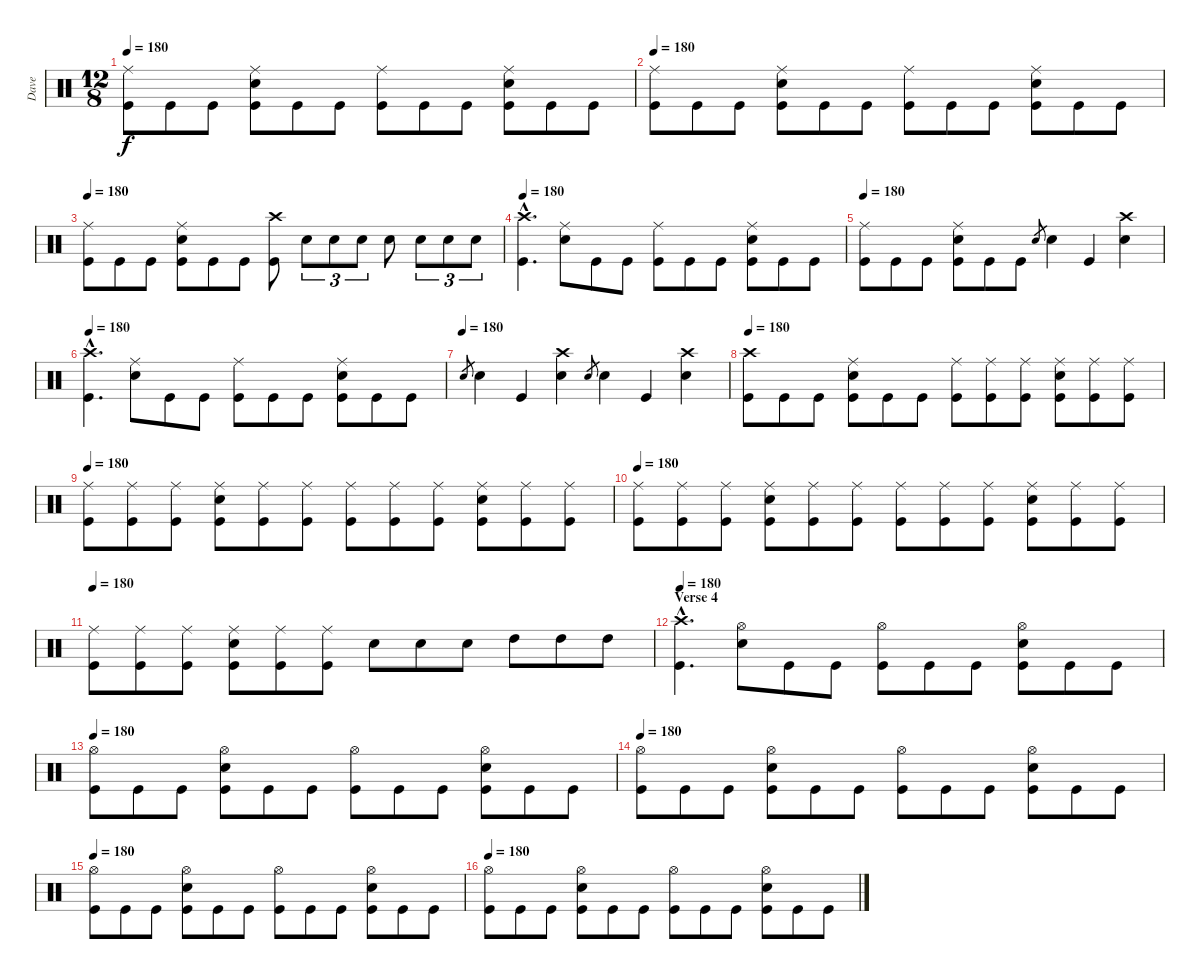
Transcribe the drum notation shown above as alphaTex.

\track ("Dave" "Dave") {instrument percussion}
\staff {score}
\articulation defaults
\ts (12 8)
\tempo 180
\clef neutral
\ks c
("Ride (middle)" "Kick (hit)").8{dy f} "Kick (hit)".8 "Kick (hit)".8 ("Ride (middle)" "Snare (hit) 2" "Kick (hit)").8 "Kick (hit)".8 "Kick (hit)".8 ("Ride (middle)" "Kick (hit)").8 "Kick (hit)".8 "Kick (hit)".8 ("Ride (middle)" "Snare (hit) 2" "Kick (hit)").8 "Kick (hit)".8 "Kick (hit)".8 |
\tempo 180
("Ride (middle)" "Kick (hit)").8 "Kick (hit)".8 "Kick (hit)".8 ("Ride (middle)" "Snare (hit) 2" "Kick (hit)").8 "Kick (hit)".8 "Kick (hit)".8 ("Ride (middle)" "Kick (hit)").8 "Kick (hit)".8 "Kick (hit)".8 ("Ride (middle)" "Snare (hit) 2" "Kick (hit)").8 "Kick (hit)".8 "Kick (hit)".8 |
\tempo 180
("Ride (middle)" "Kick (hit)").8 "Kick (hit)".8 "Kick (hit)".8 ("Ride (middle)" "Snare (hit) 2" "Kick (hit)").8 "Kick (hit)".8 "Kick (hit)".8 ("Crash high (hit)" "Kick (hit)").8 "Snare (hit) 2".8{tu (3 2)} "Snare (hit) 2".8{tu (3 2)} "Snare (hit) 2".8{tu (3 2)} "Snare (hit) 2".8 "Snare (hit) 2".8{tu (3 2)} "Snare (hit) 2".8{tu (3 2)} "Snare (hit) 2".8{tu (3 2)} |
\tempo 180
("Crash high (hit)"{hac} "Kick (hit)"{hac}).4{d} ("Ride (middle)" "Snare (hit) 2").8 "Kick (hit)".8 "Kick (hit)".8 ("Ride (middle)" "Kick (hit)").8 "Kick (hit)".8 "Kick (hit)".8 ("Ride (middle)" "Snare (hit) 2" "Kick (hit)").8 "Kick (hit)".8 "Kick (hit)".8 |
\tempo 180
("Ride (middle)" "Kick (hit)").8 "Kick (hit)".8 "Kick (hit)".8 ("Ride (middle)" "Snare (hit) 2" "Kick (hit)").8 "Kick (hit)".8 "Kick (hit)".8 "Snare (hit) 2".8{gr} "Snare (hit) 2".4 "Kick (hit)".4 ("Crash high (hit)" "Snare (hit) 2").4 |
\tempo 180
("Crash high (hit)"{hac} "Kick (hit)"{hac}).4{d} ("Ride (middle)" "Snare (hit) 2").8 "Kick (hit)".8 "Kick (hit)".8 ("Ride (middle)" "Kick (hit)").8 "Kick (hit)".8 "Kick (hit)".8 ("Ride (middle)" "Snare (hit) 2" "Kick (hit)").8 "Kick (hit)".8 "Kick (hit)".8 |
\tempo (180)
"Snare (hit) 2".8{gr} "Snare (hit) 2".4 "Kick (hit)".4 ("Crash high (hit)" "Snare (hit) 2").4 "Snare (hit) 2".8{gr} "Snare (hit) 2".4 "Kick (hit)".4 ("Crash high (hit)" "Snare (hit) 2").4 |
\tempo 180
("Crash high (hit)" "Kick (hit)").8 "Kick (hit)".8 "Kick (hit)".8 ("Ride (middle)" "Snare (hit) 2" "Kick (hit)").8 "Kick (hit)".8 "Kick (hit)".8 ("Ride (middle)" "Kick (hit)").8 ("Ride (middle)" "Kick (hit)").8 ("Ride (middle)" "Kick (hit)").8 ("Ride (middle)" "Snare (hit) 2" "Kick (hit)").8 ("Ride (middle)" "Kick (hit)").8 ("Ride (middle)" "Kick (hit)").8 |
\tempo 180
("Ride (middle)" "Kick (hit)").8 ("Ride (middle)" "Kick (hit)").8 ("Ride (middle)" "Kick (hit)").8 ("Ride (middle)" "Snare (hit) 2" "Kick (hit)").8 ("Ride (middle)" "Kick (hit)").8 ("Ride (middle)" "Kick (hit)").8 ("Ride (middle)" "Kick (hit)").8 ("Ride (middle)" "Kick (hit)").8 ("Ride (middle)" "Kick (hit)").8 ("Ride (middle)" "Snare (hit) 2" "Kick (hit)").8 ("Ride (middle)" "Kick (hit)").8 ("Ride (middle)" "Kick (hit)").8 |
\tempo 180
("Ride (middle)" "Kick (hit)").8 ("Ride (middle)" "Kick (hit)").8 ("Ride (middle)" "Kick (hit)").8 ("Ride (middle)" "Snare (hit) 2" "Kick (hit)").8 ("Ride (middle)" "Kick (hit)").8 ("Ride (middle)" "Kick (hit)").8 ("Ride (middle)" "Kick (hit)").8 ("Ride (middle)" "Kick (hit)").8 ("Ride (middle)" "Kick (hit)").8 ("Ride (middle)" "Snare (hit) 2" "Kick (hit)").8 ("Ride (middle)" "Kick (hit)").8 ("Ride (middle)" "Kick (hit)").8 |
\tempo 180
("Ride (middle)" "Kick (hit)").8 ("Ride (middle)" "Kick (hit)").8 ("Ride (middle)" "Kick (hit)").8 ("Ride (middle)" "Snare (hit) 2" "Kick (hit)").8 ("Ride (middle)" "Kick (hit)").8 ("Ride (middle)" "Kick (hit)").8 "Snare (hit) 2".8 "Snare (hit) 2".8 "Snare (hit) 2".8 "High Tom (hit)".8 "High Tom (hit)".8 "High Tom (hit)".8 |
\section ("" "Verse 4")
\tempo 180
("Crash high (hit)"{hac} "Kick (hit)"{hac}).4{d} ("Hi-Hat (open)" "Snare (hit) 2").8 "Kick (hit)".8 "Kick (hit)".8 ("Hi-Hat (open)" "Kick (hit)").8 "Kick (hit)".8 "Kick (hit)".8 ("Hi-Hat (open)" "Snare (hit) 2" "Kick (hit)").8 "Kick (hit)".8 "Kick (hit)".8 |
\tempo 180
("Hi-Hat (open)" "Kick (hit)").8 "Kick (hit)".8 "Kick (hit)".8 ("Hi-Hat (open)" "Snare (hit) 2" "Kick (hit)").8 "Kick (hit)".8 "Kick (hit)".8 ("Hi-Hat (open)" "Kick (hit)").8 "Kick (hit)".8 "Kick (hit)".8 ("Hi-Hat (open)" "Snare (hit) 2" "Kick (hit)").8 "Kick (hit)".8 "Kick (hit)".8 |
\tempo 180
("Hi-Hat (open)" "Kick (hit)").8 "Kick (hit)".8 "Kick (hit)".8 ("Hi-Hat (open)" "Snare (hit) 2" "Kick (hit)").8 "Kick (hit)".8 "Kick (hit)".8 ("Hi-Hat (open)" "Kick (hit)").8 "Kick (hit)".8 "Kick (hit)".8 ("Hi-Hat (open)" "Snare (hit) 2" "Kick (hit)").8 "Kick (hit)".8 "Kick (hit)".8 |
\tempo 180
("Hi-Hat (open)" "Kick (hit)").8 "Kick (hit)".8 "Kick (hit)".8 ("Hi-Hat (open)" "Snare (hit) 2" "Kick (hit)").8 "Kick (hit)".8 "Kick (hit)".8 ("Hi-Hat (open)" "Kick (hit)").8 "Kick (hit)".8 "Kick (hit)".8 ("Hi-Hat (open)" "Snare (hit) 2" "Kick (hit)").8 "Kick (hit)".8 "Kick (hit)".8 |
\tempo 180
("Hi-Hat (open)" "Kick (hit)").8 "Kick (hit)".8 "Kick (hit)".8 ("Hi-Hat (open)" "Snare (hit) 2" "Kick (hit)").8 "Kick (hit)".8 "Kick (hit)".8 ("Hi-Hat (open)" "Kick (hit)").8 "Kick (hit)".8 "Kick (hit)".8 ("Hi-Hat (open)" "Snare (hit) 2" "Kick (hit)").8 "Kick (hit)".8 "Kick (hit)".8
